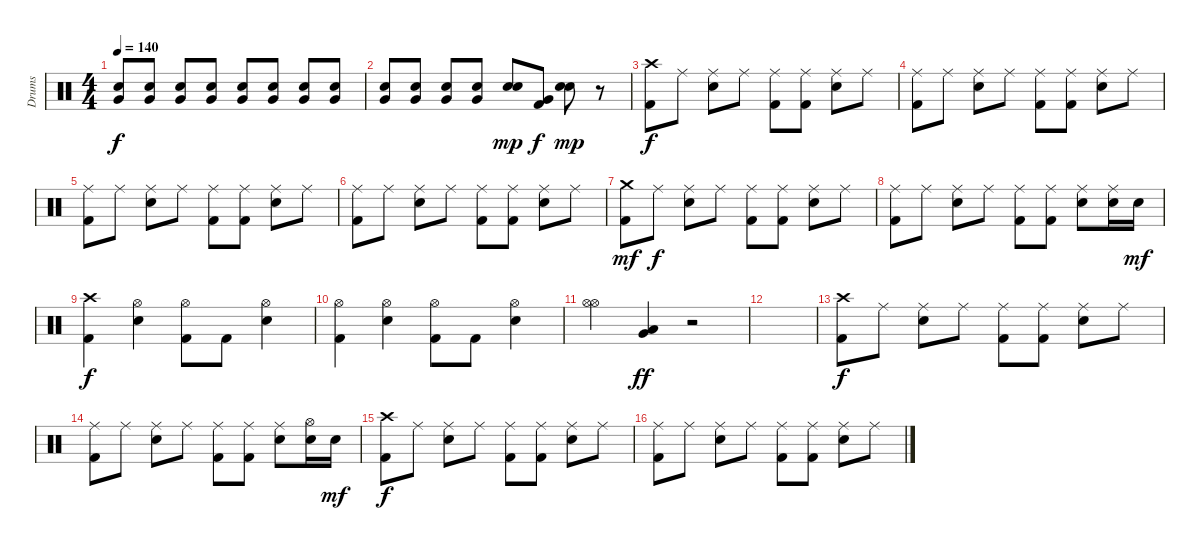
\track ("Drums" "Drums") {instrument percussion}
\staff {score}
\articulation defaults
\ts (4 4)
\tempo 140
\clef neutral
\ks c
("Snare (hit) 2" "Very Low Tom (hit)").8{dy f volume 12} ("Snare (hit) 2" "Very Low Tom (hit)").8 ("Snare (hit) 2" "Very Low Tom (hit)").8 ("Snare (hit) 2" "Very Low Tom (hit)").8 ("Snare (hit) 2" "Very Low Tom (hit)").8 ("Snare (hit) 2" "Very Low Tom (hit)").8 ("Snare (hit) 2" "Very Low Tom (hit)").8 ("Snare (hit) 2" "Very Low Tom (hit)").8 |
("Snare (hit) 2" "Very Low Tom (hit)").8 ("Snare (hit) 2" "Very Low Tom (hit)").8 ("Snare (hit) 2" "Very Low Tom (hit)").8 ("Snare (hit) 2" "Very Low Tom (hit)").8 ("Snare (hit) 2" "Snare (hit) 2").8{dy mp} ("Very Low Tom (hit)" "Kick (hit) 2").8{dy f} ("Snare (hit) 2" "Snare (hit) 2").8{dy mp} r.8 |
("Crash high (hit)" "Kick (hit) 2").8{dy f} "Ride (middle)".8 ("Ride (middle)" "Snare (hit) 2").8 "Ride (middle)".8 ("Ride (middle)" "Kick (hit) 2").8 ("Ride (middle)" "Kick (hit) 2").8 ("Ride (middle)" "Snare (hit) 2").8 "Ride (middle)".8 |
("Ride (middle)" "Kick (hit) 2").8 "Ride (middle)".8 ("Ride (middle)" "Snare (hit) 2").8 "Ride (middle)".8 ("Ride (middle)" "Kick (hit) 2").8 ("Ride (middle)" "Kick (hit) 2").8 ("Ride (middle)" "Snare (hit) 2").8 "Ride (middle)".8 |
("Ride (middle)" "Kick (hit) 2").8 "Ride (middle)".8 ("Ride (middle)" "Snare (hit) 2").8 "Ride (middle)".8 ("Ride (middle)" "Kick (hit) 2").8 ("Ride (middle)" "Kick (hit) 2").8 ("Ride (middle)" "Snare (hit) 2").8 "Ride (middle)".8 |
("Ride (middle)" "Kick (hit) 2").8 "Ride (middle)".8 ("Ride (middle)" "Snare (hit) 2").8 "Ride (middle)".8 ("Ride (middle)" "Kick (hit) 2").8 ("Ride (middle)" "Kick (hit) 2").8 ("Ride (middle)" "Snare (hit) 2").8 "Ride (middle)".8 |
("Crash medium (hit)" "Kick (hit) 2").8{dy mf} "Ride (middle)".8{dy f} ("Ride (middle)" "Snare (hit) 2").8 "Ride (middle)".8 ("Ride (middle)" "Kick (hit) 2").8 ("Ride (middle)" "Kick (hit) 2").8 ("Ride (middle)" "Snare (hit) 2").8 "Ride (middle)".8 |
("Ride (middle)" "Kick (hit) 2").8 "Ride (middle)".8 ("Ride (middle)" "Snare (hit) 2").8 "Ride (middle)".8 ("Ride (middle)" "Kick (hit) 2").8 ("Ride (middle)" "Kick (hit) 2").8 ("Ride (middle)" "Snare (hit) 2").8 ("Ride (middle)" "Snare (hit) 2").16 "Snare (hit) 2".16{dy mf} |
("Crash high (hit)" "Kick (hit) 2").4{dy f} ("Hi-Hat (open)" "Snare (hit) 2").4 ("Hi-Hat (open)" "Kick (hit) 2").8 "Kick (hit) 2".8 ("Hi-Hat (open)" "Snare (hit) 2").4 |
("Hi-Hat (open)" "Kick (hit) 2").4 ("Hi-Hat (open)" "Snare (hit) 2").4 ("Hi-Hat (open)" "Kick (hit) 2").8 "Kick (hit) 2".8 ("Hi-Hat (open)" "Snare (hit) 2").4 |
("Hi-Hat (open)" "Hi-Hat (open)").4 ("Low Tom (hit)" "Very Low Tom (hit)").4{dy ff} r.2 |
|
("Crash high (hit)" "Kick (hit) 2").8{dy f} "Ride (middle)".8 ("Ride (middle)" "Snare (hit) 2").8 "Ride (middle)".8 ("Ride (middle)" "Kick (hit) 2").8 ("Ride (middle)" "Kick (hit) 2").8 ("Ride (middle)" "Snare (hit) 2").8 "Ride (middle)".8 |
("Ride (middle)" "Kick (hit) 2").8 "Ride (middle)".8 ("Ride (middle)" "Snare (hit) 2").8 "Ride (middle)".8 ("Ride (middle)" "Kick (hit) 2").8 ("Ride (middle)" "Kick (hit) 2").8 ("Ride (middle)" "Snare (hit) 2").8 ("Hi-Hat (open)" "Snare (hit) 2").16 "Snare (hit) 2".16{dy mf} |
("Crash high (hit)" "Kick (hit) 2").8{dy f} "Ride (middle)".8 ("Ride (middle)" "Snare (hit) 2").8 "Ride (middle)".8 ("Ride (middle)" "Kick (hit) 2").8 ("Ride (middle)" "Kick (hit) 2").8 ("Ride (middle)" "Snare (hit) 2").8 "Ride (middle)".8 |
("Ride (middle)" "Kick (hit) 2").8 "Ride (middle)".8 ("Ride (middle)" "Snare (hit) 2").8 "Ride (middle)".8 ("Ride (middle)" "Kick (hit) 2").8 ("Ride (middle)" "Kick (hit) 2").8 ("Ride (middle)" "Snare (hit) 2").8 "Ride (middle)".8
